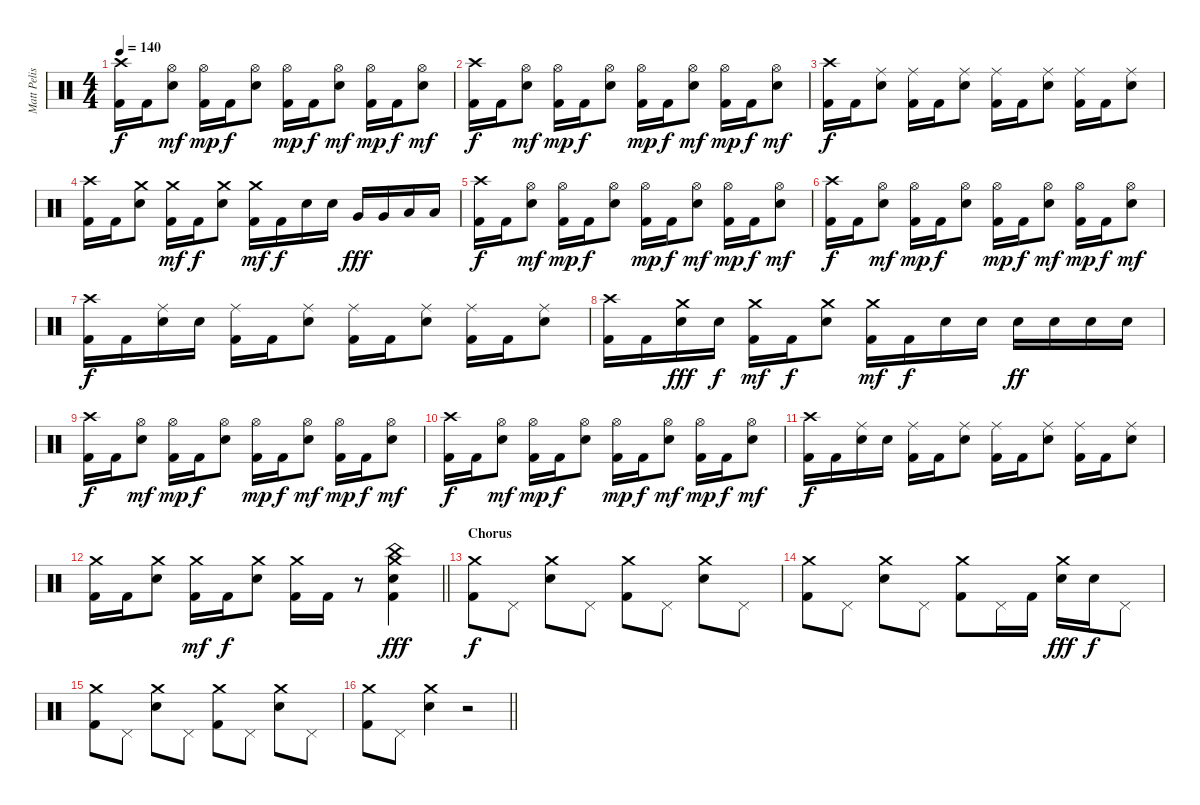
\track ("Matt Pelissier" "Matt Pelis") {instrument percussion}
\staff {score}
\articulation defaults
\ts (4 4)
\tempo 140
\clef neutral
\ks c
("Crash high (hit)" "Kick (hit) 2").16{dy f} "Kick (hit) 2".16 ("Hi-Hat (open)" "Snare (hit) 2").8{dy mf} ("Hi-Hat (open)" "Kick (hit) 2").16{dy mp} "Kick (hit) 2".16{dy f} ("Hi-Hat (open)" "Snare (hit) 2").8 ("Hi-Hat (open)" "Kick (hit) 2").16{dy mp} "Kick (hit) 2".16{dy f} ("Hi-Hat (open)" "Snare (hit) 2").8{dy mf} ("Hi-Hat (open)" "Kick (hit) 2").16{dy mp} "Kick (hit) 2".16{dy f} ("Hi-Hat (open)" "Snare (hit) 2").8{dy mf} |
("Crash high (hit)" "Kick (hit) 2").16{dy f} "Kick (hit) 2".16 ("Hi-Hat (open)" "Snare (hit) 2").8{dy mf} ("Hi-Hat (open)" "Kick (hit) 2").16{dy mp} "Kick (hit) 2".16{dy f} ("Hi-Hat (open)" "Snare (hit) 2").8 ("Hi-Hat (open)" "Kick (hit) 2").16{dy mp} "Kick (hit) 2".16{dy f} ("Hi-Hat (open)" "Snare (hit) 2").8{dy mf} ("Hi-Hat (open)" "Kick (hit) 2").16{dy mp} "Kick (hit) 2".16{dy f} ("Hi-Hat (open)" "Snare (hit) 2").8{dy mf} |
("Crash high (hit)" "Kick (hit) 2").16{dy f} "Kick (hit) 2".16 ("Ride (middle)" "Snare (hit) 2").8 ("Ride (middle)" "Kick (hit) 2").16 "Kick (hit) 2".16 ("Ride (middle)" "Snare (hit) 2").8 ("Ride (middle)" "Kick (hit) 2").16 "Kick (hit) 2".16 ("Ride (middle)" "Snare (hit) 2").8 ("Ride (middle)" "Kick (hit) 2").16 "Kick (hit) 2".16 ("Ride (middle)" "Snare (hit) 2").8 |
("Crash high (hit)" "Kick (hit) 2").16 "Kick (hit) 2".16 ("Crash medium (hit)" "Snare (hit) 2").8 ("Crash medium (hit)" "Kick (hit) 2").16{dy mf} "Kick (hit) 2".16{dy f} ("Crash medium (hit)" "Snare (hit) 2").8 ("Crash medium (hit)" "Kick (hit) 2").16{dy mf} "Kick (hit) 2".16{dy f} "Snare (hit) 2".16 "Snare (hit) 2".16 "Very Low Tom (hit)".16{dy fff} "Very Low Tom (hit)".16 "Low Floor Tom (hit)".16 "Low Floor Tom (hit)".16 |
("Crash high (hit)" "Kick (hit) 2").16{dy f} "Kick (hit) 2".16 ("Hi-Hat (open)" "Snare (hit) 2").8{dy mf} ("Hi-Hat (open)" "Kick (hit) 2").16{dy mp} "Kick (hit) 2".16{dy f} ("Hi-Hat (open)" "Snare (hit) 2").8 ("Hi-Hat (open)" "Kick (hit) 2").16{dy mp} "Kick (hit) 2".16{dy f} ("Hi-Hat (open)" "Snare (hit) 2").8{dy mf} ("Hi-Hat (open)" "Kick (hit) 2").16{dy mp} "Kick (hit) 2".16{dy f} ("Hi-Hat (open)" "Snare (hit) 2").8{dy mf} |
("Crash high (hit)" "Kick (hit) 2").16{dy f} "Kick (hit) 2".16 ("Hi-Hat (open)" "Snare (hit) 2").8{dy mf} ("Hi-Hat (open)" "Kick (hit) 2").16{dy mp} "Kick (hit) 2".16{dy f} ("Hi-Hat (open)" "Snare (hit) 2").8 ("Hi-Hat (open)" "Kick (hit) 2").16{dy mp} "Kick (hit) 2".16{dy f} ("Hi-Hat (open)" "Snare (hit) 2").8{dy mf} ("Hi-Hat (open)" "Kick (hit) 2").16{dy mp} "Kick (hit) 2".16{dy f} ("Hi-Hat (open)" "Snare (hit) 2").8{dy mf} |
("Crash high (hit)" "Kick (hit) 2").16{dy f} "Kick (hit) 2".16 ("Ride (middle)" "Snare (hit) 2").16 "Snare (hit) 2".16 ("Ride (middle)" "Kick (hit) 2").16 "Kick (hit) 2".16 ("Ride (middle)" "Snare (hit) 2").8 ("Ride (middle)" "Kick (hit) 2").16 "Kick (hit) 2".16 ("Ride (middle)" "Snare (hit) 2").8 ("Ride (middle)" "Kick (hit) 2").16 "Kick (hit) 2".16 ("Ride (middle)" "Snare (hit) 2").8 |
("Crash high (hit)" "Kick (hit) 2").16 "Kick (hit) 2".16 ("Crash medium (hit)" "Snare (hit) 2").16{dy fff} "Snare (hit) 2".16{dy f} ("Crash medium (hit)" "Kick (hit) 2").16{dy mf} "Kick (hit) 2".16{dy f} ("Crash medium (hit)" "Snare (hit) 2").8 ("Crash medium (hit)" "Kick (hit) 2").16{dy mf} "Kick (hit) 2".16{dy f} "Snare (hit) 2".16 "Snare (hit) 2".16 "Snare (hit) 2".16{dy ff} "Snare (hit) 2".16 "Snare (hit) 2".16 "Snare (hit) 2".16 |
("Crash high (hit)" "Kick (hit) 2").16{dy f} "Kick (hit) 2".16 ("Hi-Hat (open)" "Snare (hit) 2").8{dy mf} ("Hi-Hat (open)" "Kick (hit) 2").16{dy mp} "Kick (hit) 2".16{dy f} ("Hi-Hat (open)" "Snare (hit) 2").8 ("Hi-Hat (open)" "Kick (hit) 2").16{dy mp} "Kick (hit) 2".16{dy f} ("Hi-Hat (open)" "Snare (hit) 2").8{dy mf} ("Hi-Hat (open)" "Kick (hit) 2").16{dy mp} "Kick (hit) 2".16{dy f} ("Hi-Hat (open)" "Snare (hit) 2").8{dy mf} |
("Crash high (hit)" "Kick (hit) 2").16{dy f} "Kick (hit) 2".16 ("Hi-Hat (open)" "Snare (hit) 2").8{dy mf} ("Hi-Hat (open)" "Kick (hit) 2").16{dy mp} "Kick (hit) 2".16{dy f} ("Hi-Hat (open)" "Snare (hit) 2").8 ("Hi-Hat (open)" "Kick (hit) 2").16{dy mp} "Kick (hit) 2".16{dy f} ("Hi-Hat (open)" "Snare (hit) 2").8{dy mf} ("Hi-Hat (open)" "Kick (hit) 2").16{dy mp} "Kick (hit) 2".16{dy f} ("Hi-Hat (open)" "Snare (hit) 2").8{dy mf} |
("Crash high (hit)" "Kick (hit) 2").16{dy f} "Kick (hit) 2".16 ("Ride (middle)" "Snare (hit) 2").16 "Snare (hit) 2".16 ("Ride (middle)" "Kick (hit) 2").16 "Kick (hit) 2".16 ("Ride (middle)" "Snare (hit) 2").8 ("Ride (middle)" "Kick (hit) 2").16 "Kick (hit) 2".16 ("Ride (middle)" "Snare (hit) 2").8 ("Ride (middle)" "Kick (hit) 2").16 "Kick (hit) 2".16 ("Ride (middle)" "Snare (hit) 2").8 |
\barLineRight lightlight
("Crash medium (hit)" "Kick (hit) 2").16 "Kick (hit) 2".16 ("Crash medium (hit)" "Snare (hit) 2").8 ("Crash medium (hit)" "Kick (hit) 2").16{dy mf} "Kick (hit) 2".16{dy f} ("Crash medium (hit)" "Snare (hit) 2").8 ("Crash medium (hit)" "Kick (hit) 2").16 "Kick (hit) 2".16 r.8 ("Crash medium (hit)" "China (hit)" "Snare (hit) 2" "Kick (hit) 2").4{dy fff} |
\section ("" "Chorus")
("Crash medium (hit)" "Kick (hit) 2").8{dy f} "Pedal Hi-Hat (hit)".8 ("Crash medium (hit)" "Snare (hit) 2").8 "Pedal Hi-Hat (hit)".8 ("Crash medium (hit)" "Kick (hit) 2").8 "Pedal Hi-Hat (hit)".8 ("Crash medium (hit)" "Snare (hit) 2").8 "Pedal Hi-Hat (hit)".8 |
("Crash medium (hit)" "Kick (hit) 2").8 "Pedal Hi-Hat (hit)".8 ("Crash medium (hit)" "Snare (hit) 2").8 "Pedal Hi-Hat (hit)".8 ("Crash medium (hit)" "Kick (hit) 2").8 "Pedal Hi-Hat (hit)".16 "Kick (hit) 2".16 ("Crash medium (hit)" "Snare (hit) 2").16{dy fff} "Snare (hit) 2".16{dy f} "Pedal Hi-Hat (hit)".8 |
("Crash medium (hit)" "Kick (hit) 2").8 "Pedal Hi-Hat (hit)".8 ("Crash medium (hit)" "Snare (hit) 2").8 "Pedal Hi-Hat (hit)".8 ("Crash medium (hit)" "Kick (hit) 2").8 "Pedal Hi-Hat (hit)".8 ("Crash medium (hit)" "Snare (hit) 2").8 "Pedal Hi-Hat (hit)".8 |
\barLineRight lightlight
("Crash medium (hit)" "Kick (hit) 2").8 "Pedal Hi-Hat (hit)".8 ("Crash medium (hit)" "Snare (hit) 2").4 r.2
